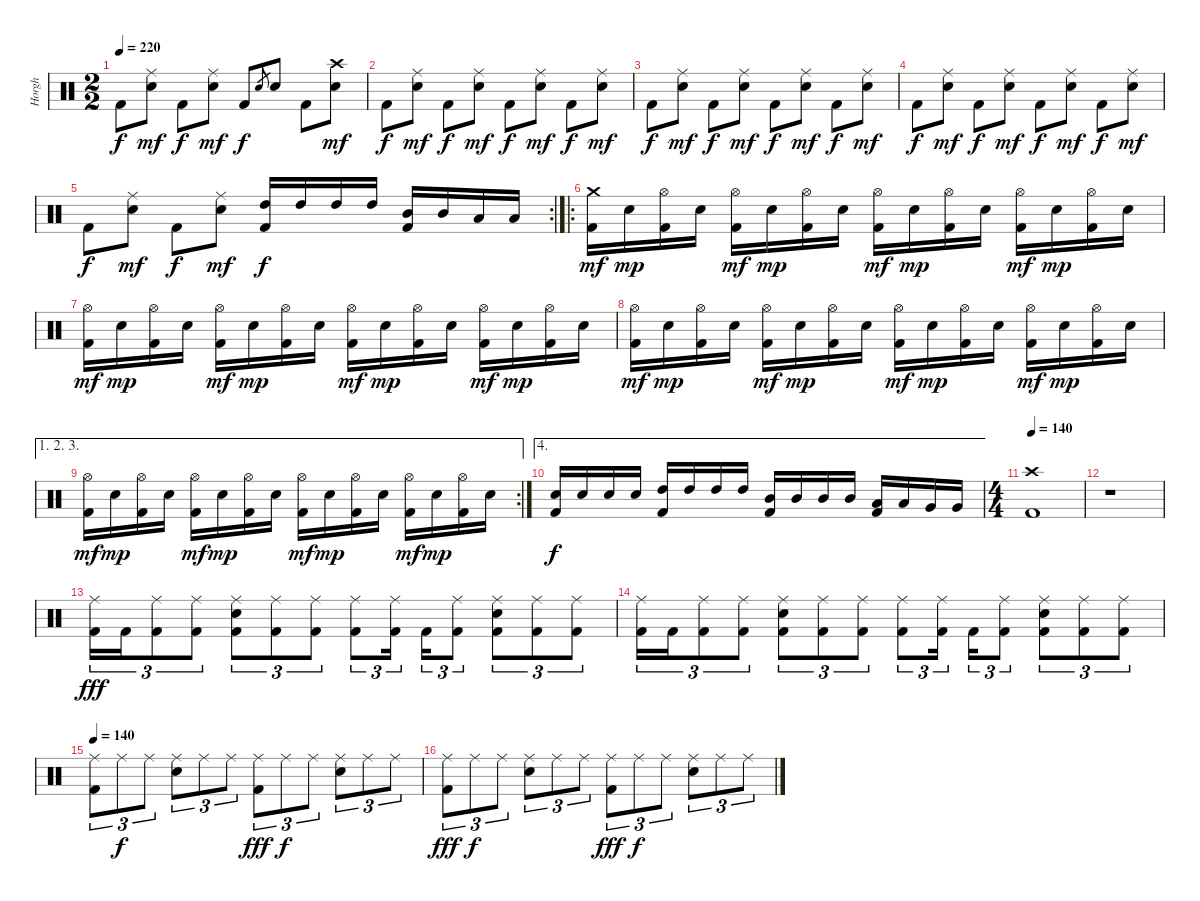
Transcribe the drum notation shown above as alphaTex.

\track ("Horgh" "Horgh") {instrument percussion}
\staff {score}
\articulation defaults
\ts (2 2)
\tempo 220
\clef neutral
\ks c "Kick (hit) 2".8{dy f}
("Ride (middle)" "Electric Snare (hit)").8{dy mf} "Kick (hit) 2".8{dy f} ("Ride (middle)" "Electric Snare (hit)").8{dy mf} "Kick (hit) 2".8{dy f} "Electric Snare (hit)".8{gr} "Electric Snare (hit)".8 "Kick (hit) 2".8 ("Crash high (hit)" "Electric Snare (hit)").8{dy mf} |
"Kick (hit) 2".8{dy f} ("Ride (middle)" "Electric Snare (hit)").8{dy mf} "Kick (hit) 2".8{dy f} ("Ride (middle)" "Electric Snare (hit)").8{dy mf} "Kick (hit) 2".8{dy f} ("Ride (middle)" "Electric Snare (hit)").8{dy mf} "Kick (hit) 2".8{dy f} ("Ride (middle)" "Electric Snare (hit)").8{dy mf} |
"Kick (hit) 2".8{dy f} ("Ride (middle)" "Electric Snare (hit)").8{dy mf} "Kick (hit) 2".8{dy f} ("Ride (middle)" "Electric Snare (hit)").8{dy mf} "Kick (hit) 2".8{dy f} ("Ride (middle)" "Electric Snare (hit)").8{dy mf} "Kick (hit) 2".8{dy f} ("Ride (middle)" "Electric Snare (hit)").8{dy mf} |
"Kick (hit) 2".8{dy f} ("Ride (middle)" "Electric Snare (hit)").8{dy mf} "Kick (hit) 2".8{dy f} ("Ride (middle)" "Electric Snare (hit)").8{dy mf} "Kick (hit) 2".8{dy f} ("Ride (middle)" "Electric Snare (hit)").8{dy mf} "Kick (hit) 2".8{dy f} ("Ride (middle)" "Electric Snare (hit)").8{dy mf} |
\rc 2 "Kick (hit) 2".8{dy f}
("Ride (middle)" "Electric Snare (hit)").8{dy mf} "Kick (hit) 2".8{dy f} ("Ride (middle)" "Electric Snare (hit)").8{dy mf} ("High Tom (hit)" "Kick (hit) 2").16{dy f} "High Tom (hit)".16 "High Tom (hit)".16 "High Tom (hit)".16 ("Mid Tom (hit)" "Kick (hit) 2").16 "Mid Tom (hit)".16 "Low Tom (hit)".16 "Low Tom (hit)".16 |
\ro
("Crash medium (hit)" "Kick (hit) 2").16{dy mf} "Electric Snare (hit)".16{dy mp} ("Hi-Hat (open)" "Kick (hit) 2").16 "Electric Snare (hit)".16 ("Hi-Hat (open)" "Kick (hit) 2").16{dy mf} "Electric Snare (hit)".16{dy mp} ("Hi-Hat (open)" "Kick (hit) 2").16 "Electric Snare (hit)".16 ("Hi-Hat (open)" "Kick (hit) 2").16{dy mf} "Electric Snare (hit)".16{dy mp} ("Hi-Hat (open)" "Kick (hit) 2").16 "Electric Snare (hit)".16 ("Hi-Hat (open)" "Kick (hit) 2").16{dy mf} "Electric Snare (hit)".16{dy mp} ("Hi-Hat (open)" "Kick (hit) 2").16 "Electric Snare (hit)".16 |
("Hi-Hat (open)" "Kick (hit) 2").16{dy mf} "Electric Snare (hit)".16{dy mp} ("Hi-Hat (open)" "Kick (hit) 2").16 "Electric Snare (hit)".16 ("Hi-Hat (open)" "Kick (hit) 2").16{dy mf} "Electric Snare (hit)".16{dy mp} ("Hi-Hat (open)" "Kick (hit) 2").16 "Electric Snare (hit)".16 ("Hi-Hat (open)" "Kick (hit) 2").16{dy mf} "Electric Snare (hit)".16{dy mp} ("Hi-Hat (open)" "Kick (hit) 2").16 "Electric Snare (hit)".16 ("Hi-Hat (open)" "Kick (hit) 2").16{dy mf} "Electric Snare (hit)".16{dy mp} ("Hi-Hat (open)" "Kick (hit) 2").16 "Electric Snare (hit)".16 |
("Hi-Hat (open)" "Kick (hit) 2").16{dy mf} "Electric Snare (hit)".16{dy mp} ("Hi-Hat (open)" "Kick (hit) 2").16 "Electric Snare (hit)".16 ("Hi-Hat (open)" "Kick (hit) 2").16{dy mf} "Electric Snare (hit)".16{dy mp} ("Hi-Hat (open)" "Kick (hit) 2").16 "Electric Snare (hit)".16 ("Hi-Hat (open)" "Kick (hit) 2").16{dy mf} "Electric Snare (hit)".16{dy mp} ("Hi-Hat (open)" "Kick (hit) 2").16 "Electric Snare (hit)".16 ("Hi-Hat (open)" "Kick (hit) 2").16{dy mf} "Electric Snare (hit)".16{dy mp} ("Hi-Hat (open)" "Kick (hit) 2").16 "Electric Snare (hit)".16 |
\ae (1 2 3)
\rc 2
("Hi-Hat (open)" "Kick (hit) 2").16{dy mf} "Electric Snare (hit)".16{dy mp} ("Hi-Hat (open)" "Kick (hit) 2").16 "Electric Snare (hit)".16 ("Hi-Hat (open)" "Kick (hit) 2").16{dy mf} "Electric Snare (hit)".16{dy mp} ("Hi-Hat (open)" "Kick (hit) 2").16 "Electric Snare (hit)".16 ("Hi-Hat (open)" "Kick (hit) 2").16{dy mf} "Electric Snare (hit)".16{dy mp} ("Hi-Hat (open)" "Kick (hit) 2").16 "Electric Snare (hit)".16 ("Hi-Hat (open)" "Kick (hit) 2").16{dy mf} "Electric Snare (hit)".16{dy mp} ("Hi-Hat (open)" "Kick (hit) 2").16 "Electric Snare (hit)".16 |
\ae 4
("Electric Snare (hit)" "Kick (hit) 2").16{dy f} "Electric Snare (hit)".16 "Electric Snare (hit)".16 "Electric Snare (hit)".16 ("High Tom (hit)" "Kick (hit) 2").16 "High Tom (hit)".16 "High Tom (hit)".16 "High Tom (hit)".16 ("Mid Tom (hit)" "Kick (hit) 2").16 "Mid Tom (hit)".16 "Mid Tom (hit)".16 "Mid Tom (hit)".16 ("Low Tom (hit)" "Kick (hit) 2").16 "Low Tom (hit)".16 "Very Low Tom (hit)".16 "Very Low Tom (hit)".16 |
\ts (4 4)
\tempo 140
("Crash high (hit)" "Kick (hit) 2").1 |
r.1 |
("Ride (middle)" "Kick (hit) 2").16{tu (3 2) dy fff} "Kick (hit) 2".16{tu (3 2)} ("Ride (middle)" "Kick (hit) 2").8{tu (3 2)} ("Ride (middle)" "Kick (hit) 2").8{tu (3 2)} ("Ride (middle)" "Electric Snare (hit)" "Kick (hit) 2").8{tu (3 2)} ("Ride (middle)" "Kick (hit) 2").8{tu (3 2)} ("Ride (middle)" "Kick (hit) 2").8{tu (3 2)} ("Ride (middle)" "Kick (hit) 2").8{tu (3 2)} ("Ride (middle)" "Kick (hit) 2").16{tu (3 2)} "Kick (hit) 2".16{tu (3 2)} ("Ride (middle)" "Kick (hit) 2").8{tu (3 2)} ("Ride (middle)" "Electric Snare (hit)" "Kick (hit) 2").8{tu (3 2)} ("Ride (middle)" "Kick (hit) 2").8{tu (3 2)} ("Ride (middle)" "Kick (hit) 2").8{tu (3 2)} |
("Ride (middle)" "Kick (hit) 2").16{tu (3 2)} "Kick (hit) 2".16{tu (3 2)} ("Ride (middle)" "Kick (hit) 2").8{tu (3 2)} ("Ride (middle)" "Kick (hit) 2").8{tu (3 2)} ("Ride (middle)" "Electric Snare (hit)" "Kick (hit) 2").8{tu (3 2)} ("Ride (middle)" "Kick (hit) 2").8{tu (3 2)} ("Ride (middle)" "Kick (hit) 2").8{tu (3 2)} ("Ride (middle)" "Kick (hit) 2").8{tu (3 2)} ("Ride (middle)" "Kick (hit) 2").16{tu (3 2)} "Kick (hit) 2".16{tu (3 2)} ("Ride (middle)" "Kick (hit) 2").8{tu (3 2)} ("Ride (middle)" "Electric Snare (hit)" "Kick (hit) 2").8{tu (3 2)} ("Ride (middle)" "Kick (hit) 2").8{tu (3 2)} ("Ride (middle)" "Kick (hit) 2").8{tu (3 2)} |
\tempo 140
("Ride (middle)" "Kick (hit) 2").8{tu (3 2)} "Ride (middle)".8{tu (3 2) dy f} "Ride (middle)".8{tu (3 2)} ("Ride (middle)" "Electric Snare (hit)").8{tu (3 2)} "Ride (middle)".8{tu (3 2)} "Ride (middle)".8{tu (3 2)} ("Ride (middle)" "Kick (hit) 2").8{tu (3 2) dy fff} "Ride (middle)".8{tu (3 2) dy f} "Ride (middle)".8{tu (3 2)} ("Ride (middle)" "Electric Snare (hit)").8{tu (3 2)} "Ride (middle)".8{tu (3 2)} "Ride (middle)".8{tu (3 2)} |
("Ride (middle)" "Kick (hit) 2").8{tu (3 2) dy fff} "Ride (middle)".8{tu (3 2) dy f} "Ride (middle)".8{tu (3 2)} ("Ride (middle)" "Electric Snare (hit)").8{tu (3 2)} "Ride (middle)".8{tu (3 2)} "Ride (middle)".8{tu (3 2)} ("Ride (middle)" "Kick (hit) 2").8{tu (3 2) dy fff} "Ride (middle)".8{tu (3 2) dy f} "Ride (middle)".8{tu (3 2)} ("Ride (middle)" "Electric Snare (hit)").8{tu (3 2)} "Ride (middle)".8{tu (3 2)} "Ride (middle)".8{tu (3 2)}
